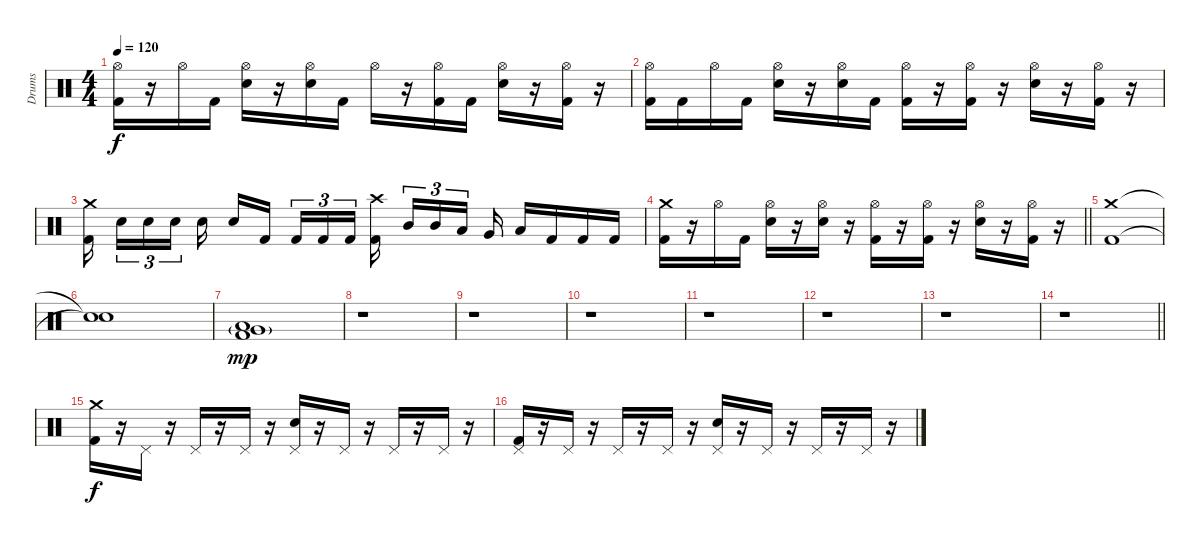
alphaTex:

\track ("Drums" "Drums") {instrument percussion}
\staff {score}
\articulation defaults
\ts (4 4)
\tempo 120
\clef neutral
\ks c
("Hi-Hat (open)" "Kick (hit) 2").16{dy f} r.16 "Hi-Hat (open)".16 "Kick (hit) 2".16 ("Hi-Hat (open)" "Electric Snare (hit)").16 r.16 ("Hi-Hat (open)" "Electric Snare (hit)").16 "Kick (hit) 2".16 "Hi-Hat (open)".16 r.16 ("Hi-Hat (open)" "Kick (hit) 2").16 "Kick (hit) 2".16 ("Hi-Hat (open)" "Electric Snare (hit)").16 r.16 ("Hi-Hat (open)" "Kick (hit) 2").16 r.16 |
("Hi-Hat (open)" "Kick (hit) 2").16 "Kick (hit) 2".16 "Hi-Hat (open)".16 "Kick (hit) 2".16 ("Hi-Hat (open)" "Electric Snare (hit)").16 r.16 ("Hi-Hat (open)" "Electric Snare (hit)").16 "Kick (hit) 2".16 ("Hi-Hat (open)" "Kick (hit) 2").16 r.16 ("Hi-Hat (open)" "Kick (hit) 2").16 r.16 ("Hi-Hat (open)" "Electric Snare (hit)").16 r.16 ("Hi-Hat (open)" "Kick (hit) 2").16 r.16 |
("Crash medium (hit)" "Kick (hit) 2").16 "Electric Snare (hit)".16{tu (3 2)} "Electric Snare (hit)".16{tu (3 2)} "Electric Snare (hit)".16{tu (3 2)} "Electric Snare (hit)".16 "Electric Snare (hit)".16 "Kick (hit) 2".16 "Kick (hit) 2".16{tu (3 2)} "Kick (hit) 2".16{tu (3 2)} "Kick (hit) 2".16{tu (3 2)} ("Crash high (hit)" "Kick (hit) 2").16 "Mid Tom (hit)".16{tu (3 2)} "Mid Tom (hit)".16{tu (3 2)} "Low Tom (hit)".16{tu (3 2)} "Very Low Tom (hit)".16 "Low Floor Tom (hit)".16 "Kick (hit) 2".16 "Kick (hit) 2".16 "Kick (hit) 2".16 |
\barLineRight lightlight
("Crash medium (hit)" "Kick (hit) 2").16 r.16 "Hi-Hat (open)".16 "Kick (hit) 2".16 ("Hi-Hat (open)" "Electric Snare (hit)").16 r.16 ("Hi-Hat (open)" "Electric Snare (hit)").16 r.16 ("Hi-Hat (open)" "Kick (hit) 2").16 r.16 ("Hi-Hat (open)" "Kick (hit) 2").16 r.16 ("Hi-Hat (open)" "Electric Snare (hit)").16 r.16 ("Hi-Hat (open)" "Kick (hit) 2").16 r.16 |
\section ("" "")
("Crash medium (hit)" "Kick (hit) 2").1 |
("Snare (hit)"{t} "Snare (hit)"{t}).1 |
("Very Low Tom (hit)"{g} "Low Floor Tom (hit)" "Kick (hit) 2").1{dy mp} |
r.1 |
r.1 |
r.1 |
r.1 |
r.1 |
r.1 |
\barLineRight lightlight
r.1 |
\section ("" "")
("Crash medium (hit)" "Kick (hit) 2").16{dy f} r.16 "Pedal Hi-Hat (hit)".16 r.16 "Pedal Hi-Hat (hit)".16 r.16 "Pedal Hi-Hat (hit)".16 r.16 ("Pedal Hi-Hat (hit)" "Electric Snare (hit)").16 r.16 "Pedal Hi-Hat (hit)".16 r.16 "Pedal Hi-Hat (hit)".16 r.16 "Pedal Hi-Hat (hit)".16 r.16 |
("Pedal Hi-Hat (hit)" "Kick (hit) 2").16 r.16 "Pedal Hi-Hat (hit)".16 r.16 "Pedal Hi-Hat (hit)".16 r.16 "Pedal Hi-Hat (hit)".16 r.16 ("Pedal Hi-Hat (hit)" "Electric Snare (hit)").16 r.16 "Pedal Hi-Hat (hit)".16 r.16 "Pedal Hi-Hat (hit)".16 r.16 "Pedal Hi-Hat (hit)".16 r.16
